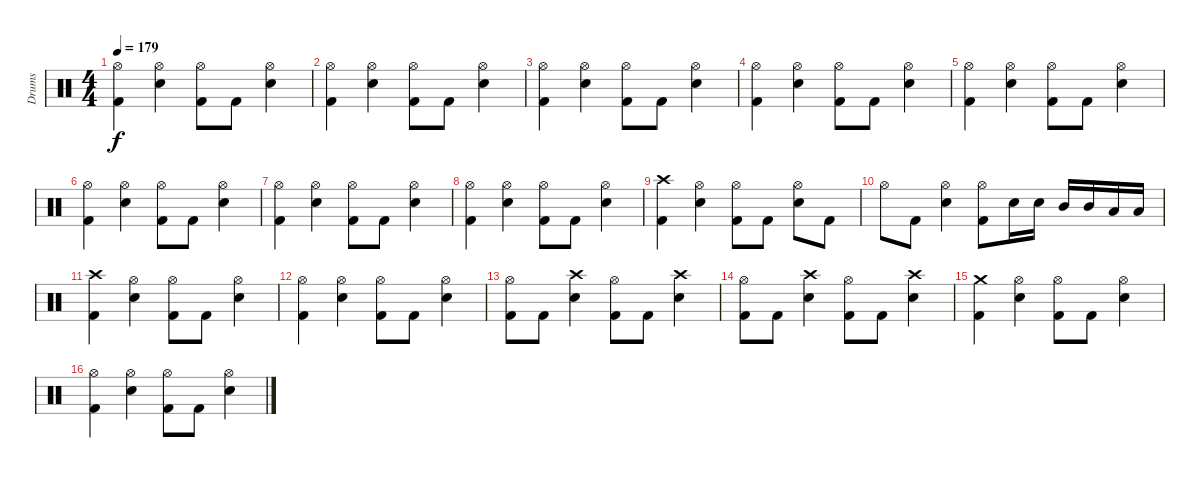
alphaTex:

\track ("Drums" "Drums") {instrument percussion}
\staff {score}
\articulation defaults
\ts (4 4)
\tempo 179
\clef neutral
\ks c
("Hi-Hat (open)" "Kick (hit) 2").4{dy f} ("Hi-Hat (open)" "Snare (hit) 2").4 ("Hi-Hat (open)" "Kick (hit) 2").8 "Kick (hit) 2".8 ("Hi-Hat (open)" "Snare (hit) 2").4 |
("Hi-Hat (open)" "Kick (hit) 2").4 ("Hi-Hat (open)" "Snare (hit) 2").4 ("Hi-Hat (open)" "Kick (hit) 2").8 "Kick (hit) 2".8 ("Hi-Hat (open)" "Snare (hit) 2").4 |
("Hi-Hat (open)" "Kick (hit) 2").4 ("Hi-Hat (open)" "Snare (hit) 2").4 ("Hi-Hat (open)" "Kick (hit) 2").8 "Kick (hit) 2".8 ("Hi-Hat (open)" "Snare (hit) 2").4 |
("Hi-Hat (open)" "Kick (hit) 2").4 ("Hi-Hat (open)" "Snare (hit) 2").4 ("Hi-Hat (open)" "Kick (hit) 2").8 "Kick (hit) 2".8 ("Hi-Hat (open)" "Snare (hit) 2").4 |
("Hi-Hat (open)" "Kick (hit) 2").4 ("Hi-Hat (open)" "Snare (hit) 2").4 ("Hi-Hat (open)" "Kick (hit) 2").8 "Kick (hit) 2".8 ("Hi-Hat (open)" "Snare (hit) 2").4 |
("Hi-Hat (open)" "Kick (hit) 2").4 ("Hi-Hat (open)" "Snare (hit) 2").4 ("Hi-Hat (open)" "Kick (hit) 2").8 "Kick (hit) 2".8 ("Hi-Hat (open)" "Snare (hit) 2").4 |
("Hi-Hat (open)" "Kick (hit) 2").4 ("Hi-Hat (open)" "Snare (hit) 2").4 ("Hi-Hat (open)" "Kick (hit) 2").8 "Kick (hit) 2".8 ("Hi-Hat (open)" "Snare (hit) 2").4 |
("Hi-Hat (open)" "Kick (hit) 2").4 ("Hi-Hat (open)" "Snare (hit) 2").4 ("Hi-Hat (open)" "Kick (hit) 2").8 "Kick (hit) 2".8 ("Hi-Hat (open)" "Snare (hit) 2").4 |
("Crash high (hit)" "Kick (hit) 2").4 ("Hi-Hat (open)" "Snare (hit) 2").4 ("Hi-Hat (open)" "Kick (hit) 2").8 "Kick (hit) 2".8 ("Hi-Hat (open)" "Snare (hit) 2").8 "Kick (hit) 2".8 |
"Hi-Hat (open)".8 "Kick (hit) 2".8 ("Hi-Hat (open)" "Snare (hit) 2").4 ("Hi-Hat (open)" "Kick (hit) 2").8 "Snare (hit) 2".16 "Snare (hit) 2".16 "Mid Tom (hit)".16 "Mid Tom (hit)".16 "Low Tom (hit)".16 "Low Tom (hit)".16 |
("Crash high (hit)" "Kick (hit) 2").4 ("Hi-Hat (open)" "Snare (hit) 2").4 ("Hi-Hat (open)" "Kick (hit) 2").8 "Kick (hit) 2".8 ("Hi-Hat (open)" "Snare (hit) 2").4 |
("Hi-Hat (open)" "Kick (hit) 2").4 ("Hi-Hat (open)" "Snare (hit) 2").4 ("Hi-Hat (open)" "Kick (hit) 2").8 "Kick (hit) 2".8 ("Hi-Hat (open)" "Snare (hit) 2").4 |
("Hi-Hat (open)" "Kick (hit) 2").8 "Kick (hit) 2".8 ("Crash high (hit)" "Snare (hit) 2").4 ("Hi-Hat (open)" "Kick (hit) 2").8 "Kick (hit) 2".8 ("Crash high (hit)" "Snare (hit) 2").4 |
("Hi-Hat (open)" "Kick (hit) 2").8 "Kick (hit) 2".8 ("Crash high (hit)" "Snare (hit) 2").4 ("Hi-Hat (open)" "Kick (hit) 2").8 "Kick (hit) 2".8 ("Crash high (hit)" "Snare (hit) 2").4 |
("Crash medium (hit)" "Kick (hit) 2").4 ("Hi-Hat (open)" "Snare (hit) 2").4 ("Hi-Hat (open)" "Kick (hit) 2").8 "Kick (hit) 2".8 ("Hi-Hat (open)" "Snare (hit) 2").4 |
("Hi-Hat (open)" "Kick (hit) 2").4 ("Hi-Hat (open)" "Snare (hit) 2").4 ("Hi-Hat (open)" "Kick (hit) 2").8 "Kick (hit) 2".8 ("Hi-Hat (open)" "Snare (hit) 2").4
